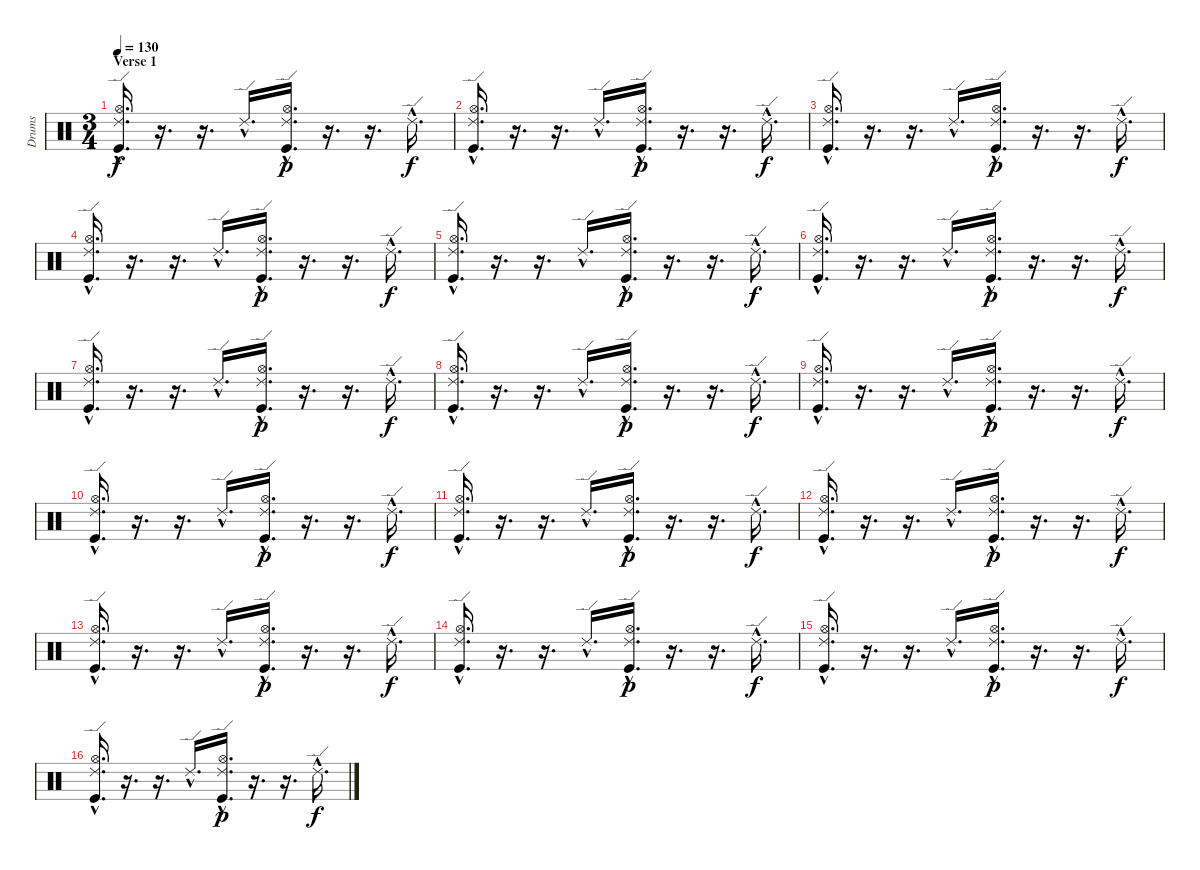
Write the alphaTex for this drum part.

\track ("Drums" "Drums") {instrument percussion}
\staff {score}
\articulation defaults
\ts (3 4)
\section ("" "Verse 1")
\tempo 130
\clef neutral
\ks c
("Ride (edge) 2"{hac} "Hi-Hat (open)"{hac} "Kick (hit)"{hac}).16{d dy f} r.16{d} r.16{d} "Ride (edge) 2"{hac}.16{d} ("Ride (edge) 2"{hac} "Hi-Hat (open)"{hac} "Kick (hit)"{hac}).16{d dy p} r.16{d} r.16{d} "Ride (edge) 2"{hac}.16{d dy f} |
("Ride (edge) 2"{hac} "Hi-Hat (open)"{hac} "Kick (hit)"{hac}).16{d} r.16{d} r.16{d} "Ride (edge) 2"{hac}.16{d} ("Ride (edge) 2"{hac} "Hi-Hat (open)"{hac} "Kick (hit)"{hac}).16{d dy p} r.16{d} r.16{d} "Ride (edge) 2"{hac}.16{d dy f} |
("Ride (edge) 2"{hac} "Hi-Hat (open)"{hac} "Kick (hit)"{hac}).16{d} r.16{d} r.16{d} "Ride (edge) 2"{hac}.16{d} ("Ride (edge) 2"{hac} "Hi-Hat (open)"{hac} "Kick (hit)"{hac}).16{d dy p} r.16{d} r.16{d} "Ride (edge) 2"{hac}.16{d dy f} |
("Ride (edge) 2"{hac} "Hi-Hat (open)"{hac} "Kick (hit)"{hac}).16{d} r.16{d} r.16{d} "Ride (edge) 2"{hac}.16{d} ("Ride (edge) 2"{hac} "Hi-Hat (open)"{hac} "Kick (hit)"{hac}).16{d dy p} r.16{d} r.16{d} "Ride (edge) 2"{hac}.16{d dy f} |
("Ride (edge) 2"{hac} "Hi-Hat (open)"{hac} "Kick (hit)"{hac}).16{d} r.16{d} r.16{d} "Ride (edge) 2"{hac}.16{d} ("Ride (edge) 2"{hac} "Hi-Hat (open)"{hac} "Kick (hit)"{hac}).16{d dy p} r.16{d} r.16{d} "Ride (edge) 2"{hac}.16{d dy f} |
("Ride (edge) 2"{hac} "Hi-Hat (open)"{hac} "Kick (hit)"{hac}).16{d} r.16{d} r.16{d} "Ride (edge) 2"{hac}.16{d} ("Ride (edge) 2"{hac} "Hi-Hat (open)"{hac} "Kick (hit)"{hac}).16{d dy p} r.16{d} r.16{d} "Ride (edge) 2"{hac}.16{d dy f} |
("Ride (edge) 2"{hac} "Hi-Hat (open)"{hac} "Kick (hit)"{hac}).16{d} r.16{d} r.16{d} "Ride (edge) 2"{hac}.16{d} ("Ride (edge) 2"{hac} "Hi-Hat (open)"{hac} "Kick (hit)"{hac}).16{d dy p} r.16{d} r.16{d} "Ride (edge) 2"{hac}.16{d dy f} |
("Ride (edge) 2"{hac} "Hi-Hat (open)"{hac} "Kick (hit)"{hac}).16{d} r.16{d} r.16{d} "Ride (edge) 2"{hac}.16{d} ("Ride (edge) 2"{hac} "Hi-Hat (open)"{hac} "Kick (hit)"{hac}).16{d dy p} r.16{d} r.16{d} "Ride (edge) 2"{hac}.16{d dy f} |
("Ride (edge) 2"{hac} "Hi-Hat (open)"{hac} "Kick (hit)"{hac}).16{d} r.16{d} r.16{d} "Ride (edge) 2"{hac}.16{d} ("Ride (edge) 2"{hac} "Hi-Hat (open)"{hac} "Kick (hit)"{hac}).16{d dy p} r.16{d} r.16{d} "Ride (edge) 2"{hac}.16{d dy f} |
("Ride (edge) 2"{hac} "Hi-Hat (open)"{hac} "Kick (hit)"{hac}).16{d} r.16{d} r.16{d} "Ride (edge) 2"{hac}.16{d} ("Ride (edge) 2"{hac} "Hi-Hat (open)"{hac} "Kick (hit)"{hac}).16{d dy p} r.16{d} r.16{d} "Ride (edge) 2"{hac}.16{d dy f} |
("Ride (edge) 2"{hac} "Hi-Hat (open)"{hac} "Kick (hit)"{hac}).16{d} r.16{d} r.16{d} "Ride (edge) 2"{hac}.16{d} ("Ride (edge) 2"{hac} "Hi-Hat (open)"{hac} "Kick (hit)"{hac}).16{d dy p} r.16{d} r.16{d} "Ride (edge) 2"{hac}.16{d dy f} |
("Ride (edge) 2"{hac} "Hi-Hat (open)"{hac} "Kick (hit)"{hac}).16{d} r.16{d} r.16{d} "Ride (edge) 2"{hac}.16{d} ("Ride (edge) 2"{hac} "Hi-Hat (open)"{hac} "Kick (hit)"{hac}).16{d dy p} r.16{d} r.16{d} "Ride (edge) 2"{hac}.16{d dy f} |
("Ride (edge) 2"{hac} "Hi-Hat (open)"{hac} "Kick (hit)"{hac}).16{d} r.16{d} r.16{d} "Ride (edge) 2"{hac}.16{d} ("Ride (edge) 2"{hac} "Hi-Hat (open)"{hac} "Kick (hit)"{hac}).16{d dy p} r.16{d} r.16{d} "Ride (edge) 2"{hac}.16{d dy f} |
("Ride (edge) 2"{hac} "Hi-Hat (open)"{hac} "Kick (hit)"{hac}).16{d} r.16{d} r.16{d} "Ride (edge) 2"{hac}.16{d} ("Ride (edge) 2"{hac} "Hi-Hat (open)"{hac} "Kick (hit)"{hac}).16{d dy p} r.16{d} r.16{d} "Ride (edge) 2"{hac}.16{d dy f} |
("Ride (edge) 2"{hac} "Hi-Hat (open)"{hac} "Kick (hit)"{hac}).16{d} r.16{d} r.16{d} "Ride (edge) 2"{hac}.16{d} ("Ride (edge) 2"{hac} "Hi-Hat (open)"{hac} "Kick (hit)"{hac}).16{d dy p} r.16{d} r.16{d} "Ride (edge) 2"{hac}.16{d dy f} |
("Ride (edge) 2"{hac} "Hi-Hat (open)"{hac} "Kick (hit)"{hac}).16{d} r.16{d} r.16{d} "Ride (edge) 2"{hac}.16{d} ("Ride (edge) 2"{hac} "Hi-Hat (open)"{hac} "Kick (hit)"{hac}).16{d dy p} r.16{d} r.16{d} "Ride (edge) 2"{hac}.16{d dy f}
